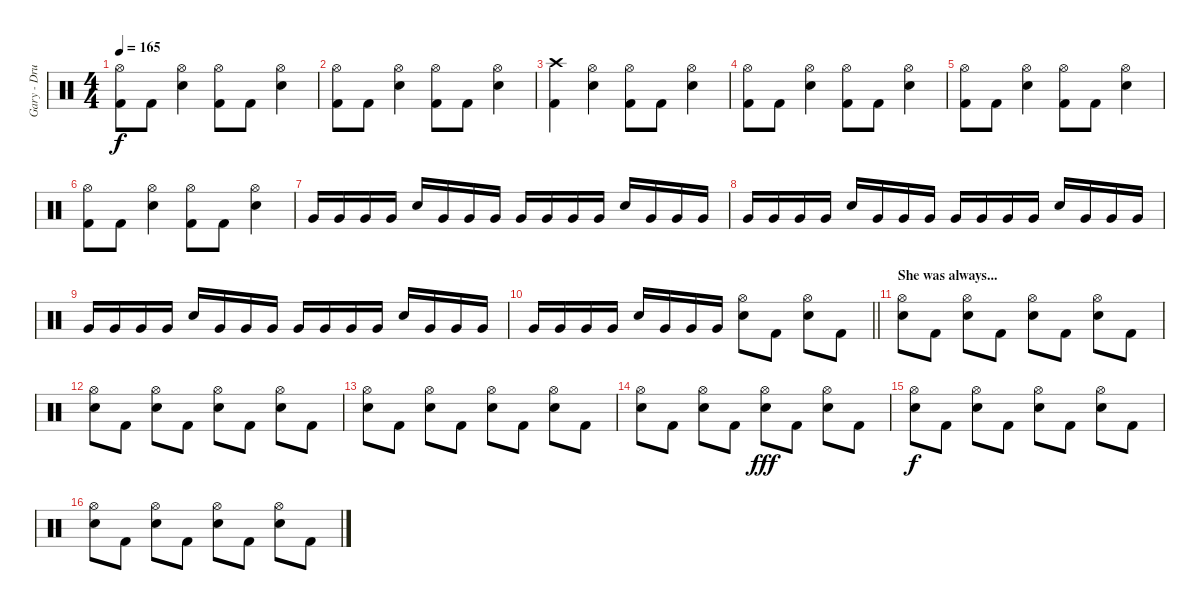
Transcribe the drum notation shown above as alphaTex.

\track ("Gary - Drums" "Gary - Dru") {instrument percussion}
\staff {score}
\articulation defaults
\ts (4 4)
\tempo 165
\clef neutral
\ks c
("Hi-Hat (open)" "Kick (hit) 2").8{dy f} "Kick (hit) 2".8 ("Hi-Hat (open)" "Snare (hit) 2").4 ("Hi-Hat (open)" "Kick (hit) 2").8 "Kick (hit) 2".8 ("Hi-Hat (open)" "Snare (hit) 2").4 |
("Hi-Hat (open)" "Kick (hit) 2").8 "Kick (hit) 2".8 ("Hi-Hat (open)" "Snare (hit) 2").4 ("Hi-Hat (open)" "Kick (hit) 2").8 "Kick (hit) 2".8 ("Hi-Hat (open)" "Snare (hit) 2").4 |
("Crash high (hit)" "Kick (hit) 2").4 ("Hi-Hat (open)" "Snare (hit) 2").4 ("Hi-Hat (open)" "Kick (hit) 2").8 "Kick (hit) 2".8 ("Hi-Hat (open)" "Snare (hit) 2").4 |
("Hi-Hat (open)" "Kick (hit) 2").8 "Kick (hit) 2".8 ("Hi-Hat (open)" "Snare (hit) 2").4 ("Hi-Hat (open)" "Kick (hit) 2").8 "Kick (hit) 2".8 ("Hi-Hat (open)" "Snare (hit) 2").4 |
("Hi-Hat (open)" "Kick (hit) 2").8 "Kick (hit) 2".8 ("Hi-Hat (open)" "Snare (hit) 2").4 ("Hi-Hat (open)" "Kick (hit) 2").8 "Kick (hit) 2".8 ("Hi-Hat (open)" "Snare (hit) 2").4 |
("Hi-Hat (open)" "Kick (hit) 2").8 "Kick (hit) 2".8 ("Hi-Hat (open)" "Snare (hit) 2").4 ("Hi-Hat (open)" "Kick (hit) 2").8 "Kick (hit) 2".8 ("Hi-Hat (open)" "Snare (hit) 2").4 |
"Very Low Tom (hit)".16 "Very Low Tom (hit)".16 "Very Low Tom (hit)".16 "Very Low Tom (hit)".16 "Snare (hit) 2".16 "Very Low Tom (hit)".16 "Very Low Tom (hit)".16 "Very Low Tom (hit)".16 "Very Low Tom (hit)".16 "Very Low Tom (hit)".16 "Very Low Tom (hit)".16 "Very Low Tom (hit)".16 "Snare (hit) 2".16 "Very Low Tom (hit)".16 "Very Low Tom (hit)".16 "Very Low Tom (hit)".16 |
"Very Low Tom (hit)".16 "Very Low Tom (hit)".16 "Very Low Tom (hit)".16 "Very Low Tom (hit)".16 "Snare (hit) 2".16 "Very Low Tom (hit)".16 "Very Low Tom (hit)".16 "Very Low Tom (hit)".16 "Very Low Tom (hit)".16 "Very Low Tom (hit)".16 "Very Low Tom (hit)".16 "Very Low Tom (hit)".16 "Snare (hit) 2".16 "Very Low Tom (hit)".16 "Very Low Tom (hit)".16 "Very Low Tom (hit)".16 |
"Very Low Tom (hit)".16 "Very Low Tom (hit)".16 "Very Low Tom (hit)".16 "Very Low Tom (hit)".16 "Snare (hit) 2".16 "Very Low Tom (hit)".16 "Very Low Tom (hit)".16 "Very Low Tom (hit)".16 "Very Low Tom (hit)".16 "Very Low Tom (hit)".16 "Very Low Tom (hit)".16 "Very Low Tom (hit)".16 "Snare (hit) 2".16 "Very Low Tom (hit)".16 "Very Low Tom (hit)".16 "Very Low Tom (hit)".16 |
\barLineRight lightlight "Very Low Tom (hit)".16 "Very Low Tom (hit)".16 "Very Low Tom (hit)".16 "Very Low Tom (hit)".16 "Snare (hit) 2".16 "Very Low Tom (hit)".16 "Very Low Tom (hit)".16 "Very Low Tom (hit)".16
("Hi-Hat (open)" "Snare (hit) 2").8 "Kick (hit) 2".8 ("Hi-Hat (open)" "Snare (hit) 2").8 "Kick (hit) 2".8 |
\section ("" "She was always...")
("Hi-Hat (open)" "Snare (hit) 2").8 "Kick (hit) 2".8 ("Hi-Hat (open)" "Snare (hit) 2").8 "Kick (hit) 2".8 ("Hi-Hat (open)" "Snare (hit) 2").8 "Kick (hit) 2".8 ("Hi-Hat (open)" "Snare (hit) 2").8 "Kick (hit) 2".8 |
("Hi-Hat (open)" "Snare (hit) 2").8 "Kick (hit) 2".8 ("Hi-Hat (open)" "Snare (hit) 2").8 "Kick (hit) 2".8 ("Hi-Hat (open)" "Snare (hit) 2").8 "Kick (hit) 2".8 ("Hi-Hat (open)" "Snare (hit) 2").8 "Kick (hit) 2".8 |
("Hi-Hat (open)" "Snare (hit) 2").8 "Kick (hit) 2".8 ("Hi-Hat (open)" "Snare (hit) 2").8 "Kick (hit) 2".8 ("Hi-Hat (open)" "Snare (hit) 2").8 "Kick (hit) 2".8 ("Hi-Hat (open)" "Snare (hit) 2").8 "Kick (hit) 2".8 |
("Hi-Hat (open)" "Snare (hit) 2").8 "Kick (hit) 2".8 ("Hi-Hat (open)" "Snare (hit) 2").8 "Kick (hit) 2".8 ("Hi-Hat (open)" "Snare (hit) 2").8{dy fff} "Kick (hit) 2".8 ("Hi-Hat (open)" "Snare (hit) 2").8 "Kick (hit) 2".8 |
("Hi-Hat (open)" "Snare (hit) 2").8{dy f} "Kick (hit) 2".8 ("Hi-Hat (open)" "Snare (hit) 2").8 "Kick (hit) 2".8 ("Hi-Hat (open)" "Snare (hit) 2").8 "Kick (hit) 2".8 ("Hi-Hat (open)" "Snare (hit) 2").8 "Kick (hit) 2".8 |
("Hi-Hat (open)" "Snare (hit) 2").8 "Kick (hit) 2".8 ("Hi-Hat (open)" "Snare (hit) 2").8 "Kick (hit) 2".8 ("Hi-Hat (open)" "Snare (hit) 2").8 "Kick (hit) 2".8 ("Hi-Hat (open)" "Snare (hit) 2").8 "Kick (hit) 2".8
